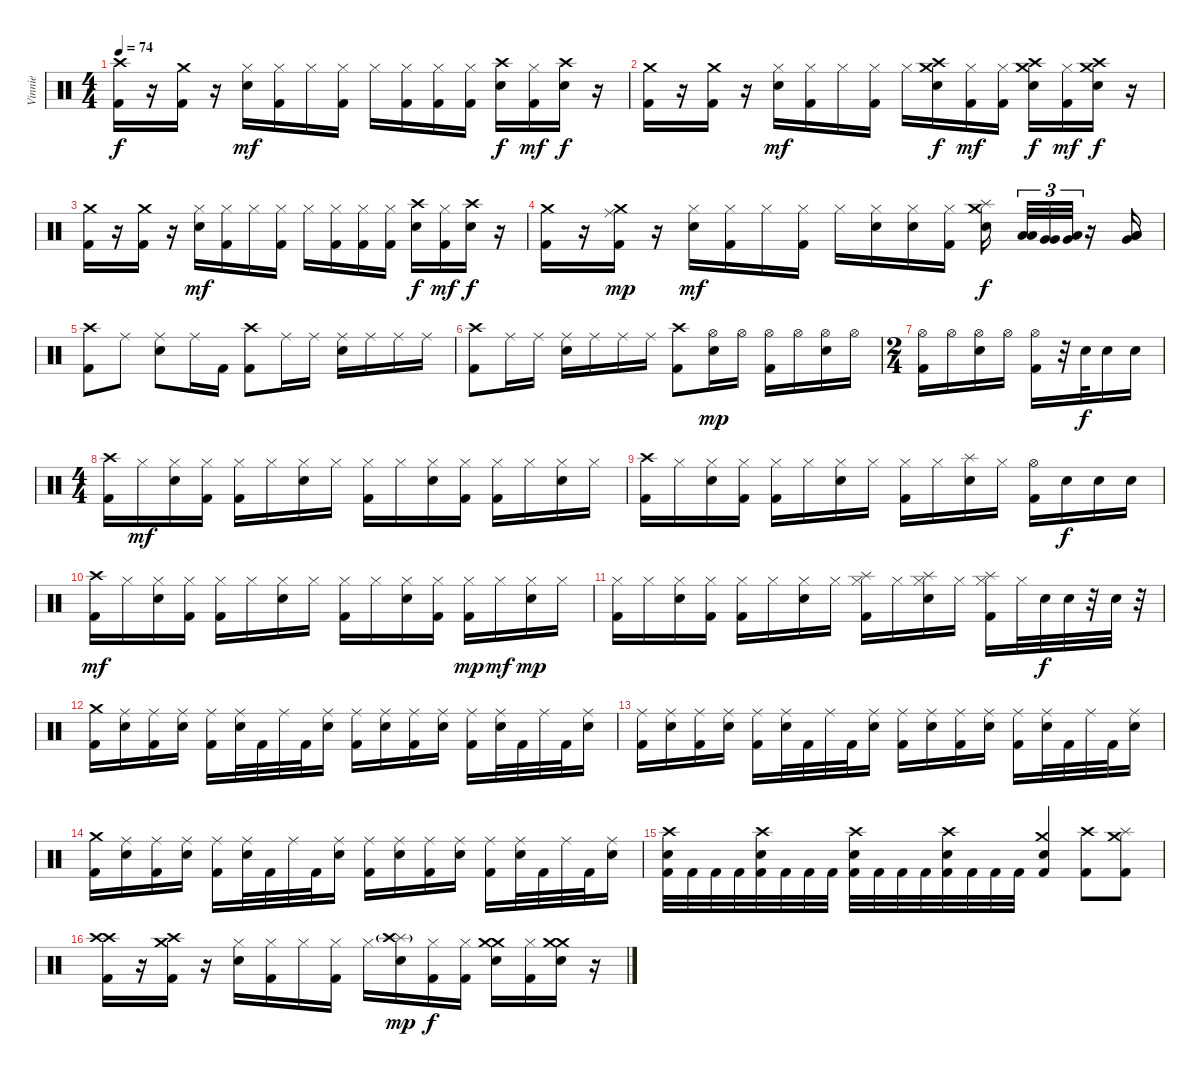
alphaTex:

\track ("Vinnie" "Vinnie") {instrument percussion}
\staff {score}
\articulation defaults
\ts (4 4)
\tempo 74
\clef neutral
\ks c
("Crash high (hit)" "Kick (hit) 2").16{dy f} r.16 ("Crash medium (hit)" "Kick (hit) 2").16 r.16 ("Hi-Hat (closed)" "Electric Snare (hit)").16{dy mf} ("Hi-Hat (closed)" "Kick (hit) 2").16 "Hi-Hat (closed)".16 ("Hi-Hat (closed)" "Kick (hit) 2").16 "Hi-Hat (closed)".16 ("Hi-Hat (closed)" "Kick (hit) 2").16 ("Hi-Hat (closed)" "Kick (hit) 2").16 ("Hi-Hat (closed)" "Kick (hit) 2").16 ("Crash high (hit)" "Electric Snare (hit)").16{dy f} ("Hi-Hat (closed)" "Kick (hit) 2").16{dy mf} ("Crash high (hit)" "Electric Snare (hit)").16{dy f} r.16 |
("Crash medium (hit)" "Kick (hit) 2").16 r.16 ("Crash medium (hit)" "Kick (hit) 2").16 r.16 ("Hi-Hat (closed)" "Electric Snare (hit)").16{dy mf} ("Hi-Hat (closed)" "Kick (hit) 2").16 "Hi-Hat (closed)".16 ("Hi-Hat (closed)" "Kick (hit) 2").16 "Hi-Hat (closed)".16 ("Crash medium (hit)" "Crash high (hit)" "Electric Snare (hit)").16{dy f} ("Hi-Hat (closed)" "Kick (hit) 2").16{dy mf} ("Hi-Hat (closed)" "Kick (hit) 2").16 ("Crash medium (hit)" "Crash high (hit)" "Electric Snare (hit)").16{dy f} ("Hi-Hat (closed)" "Kick (hit) 2").16{dy mf} ("Crash medium (hit)" "Crash high (hit)" "Electric Snare (hit)").16{dy f} r.16 |
("Crash medium (hit)" "Kick (hit) 2").16 r.16 ("Crash medium (hit)" "Kick (hit) 2").16 r.16 ("Hi-Hat (closed)" "Electric Snare (hit)").16{dy mf} ("Hi-Hat (closed)" "Kick (hit) 2").16 "Hi-Hat (closed)".16 ("Hi-Hat (closed)" "Kick (hit) 2").16 "Hi-Hat (closed)".16 ("Hi-Hat (closed)" "Kick (hit) 2").16 ("Hi-Hat (closed)" "Kick (hit) 2").16 ("Hi-Hat (closed)" "Kick (hit) 2").16 ("Crash high (hit)" "Electric Snare (hit)").16{dy f} ("Hi-Hat (closed)" "Kick (hit) 2").16{dy mf} ("Crash high (hit)" "Electric Snare (hit)").16{dy f} r.16 |
("Crash medium (hit)" "Kick (hit) 2").16 r.16 ("Crash medium (hit)" "Ride (middle)" "Kick (hit) 2").16{dy mp} r.16 ("Hi-Hat (closed)" "Electric Snare (hit)").16{dy mf} ("Hi-Hat (closed)" "Kick (hit) 2").16 "Hi-Hat (closed)".16 ("Hi-Hat (closed)" "Kick (hit) 2").16 "Hi-Hat (closed)".16 ("Hi-Hat (closed)" "Electric Snare (hit)").16 ("Hi-Hat (closed)" "Electric Snare (hit)").16 ("Hi-Hat (closed)" "Kick (hit) 2").16 ("Crash medium (hit)" "Splash (hit)" "Electric Snare (hit)").16{dy f} ("Low Tom (hit)" "Low Tom (hit)").32{tu (3 2)} ("Very Low Tom (hit)" "Very Low Tom (hit)").32{tu (3 2)} ("Very Low Tom (hit)" "Low Floor Tom (hit)").32{tu (3 2)} r.16 ("Very Low Tom (hit)" "Low Floor Tom (hit)" "Low Floor Tom (hit)").16 |
("Crash high (hit)" "Kick (hit) 2").8 "Ride (middle)".8 ("Ride (middle)" "Electric Snare (hit)").8 "Ride (middle)".16 "Kick (hit) 2".16 ("Crash high (hit)" "Kick (hit) 2").8 "Ride (middle)".16 "Ride (middle)".16 ("Ride (middle)" "Electric Snare (hit)").16 "Ride (middle)".16 "Ride (middle)".16 "Ride (middle)".16 |
("Crash high (hit)" "Kick (hit) 2").8 "Ride (middle)".16 "Ride (middle)".16 ("Ride (middle)" "Electric Snare (hit)").16 "Ride (middle)".16 "Ride (middle)".16 "Ride (middle)".16 ("Crash high (hit)" "Kick (hit) 2").8 ("Hi-Hat (open)" "Electric Snare (hit)").16{dy mp} "Hi-Hat (open)".16 ("Hi-Hat (open)" "Kick (hit) 2").16 "Hi-Hat (open)".16 ("Hi-Hat (open)" "Electric Snare (hit)").16 "Hi-Hat (open)".16 |
\ts (2 4)
("Hi-Hat (open)" "Kick (hit) 2").16 "Hi-Hat (open)".16 ("Hi-Hat (open)" "Electric Snare (hit)").16 "Hi-Hat (open)".16 ("Hi-Hat (open)" "Kick (hit) 2").16 r.32 "Electric Snare (hit)".32{dy f} "Electric Snare (hit)".16 "Electric Snare (hit)".16 |
\ts (4 4)
("Crash high (hit)" "Kick (hit) 2").16 "Hi-Hat (closed)".16{dy mf} ("Hi-Hat (closed)" "Electric Snare (hit)").16 ("Hi-Hat (closed)" "Kick (hit) 2").16 ("Hi-Hat (closed)" "Kick (hit) 2").16 "Hi-Hat (closed)".16 ("Hi-Hat (closed)" "Electric Snare (hit)").16 "Hi-Hat (closed)".16 ("Hi-Hat (closed)" "Kick (hit) 2").16 "Hi-Hat (closed)".16 ("Hi-Hat (closed)" "Electric Snare (hit)").16 ("Hi-Hat (closed)" "Kick (hit) 2").16 ("Hi-Hat (closed)" "Kick (hit) 2").16 "Hi-Hat (closed)".16 ("Hi-Hat (closed)" "Electric Snare (hit)").16 "Hi-Hat (closed)".16 |
("Crash high (hit)" "Kick (hit) 2").16 "Hi-Hat (closed)".16 ("Hi-Hat (closed)" "Electric Snare (hit)").16 ("Hi-Hat (closed)" "Kick (hit) 2").16 ("Hi-Hat (closed)" "Kick (hit) 2").16 "Hi-Hat (closed)".16 ("Hi-Hat (closed)" "Electric Snare (hit)").16 "Hi-Hat (closed)".16 ("Hi-Hat (closed)" "Kick (hit) 2").16 "Hi-Hat (closed)".16 ("Splash (hit)" "Electric Snare (hit)").16 "Hi-Hat (closed)".16 ("Hi-Hat (open)" "Kick (hit) 2").16 "Electric Snare (hit)".16{dy f} "Electric Snare (hit)".16 "Electric Snare (hit)".16 |
("Crash high (hit)" "Kick (hit) 2").16{dy mf} "Hi-Hat (closed)".16 ("Hi-Hat (closed)" "Electric Snare (hit)").16 ("Hi-Hat (closed)" "Kick (hit) 2").16 ("Hi-Hat (closed)" "Kick (hit) 2").16 "Hi-Hat (closed)".16 ("Hi-Hat (closed)" "Electric Snare (hit)").16 "Hi-Hat (closed)".16 ("Hi-Hat (closed)" "Kick (hit) 2").16 "Hi-Hat (closed)".16 ("Hi-Hat (closed)" "Electric Snare (hit)").16 ("Hi-Hat (closed)" "Kick (hit) 2").16 ("Hi-Hat (closed)" "Kick (hit) 2").16{dy mp} "Hi-Hat (closed)".16{dy mf} ("Hi-Hat (closed)" "Electric Snare (hit)").16{dy mp} "Hi-Hat (closed)".16 |
("Hi-Hat (closed)" "Kick (hit) 2").16 "Hi-Hat (closed)".16 ("Hi-Hat (closed)" "Electric Snare (hit)").16 ("Hi-Hat (closed)" "Kick (hit) 2").16 ("Hi-Hat (closed)" "Kick (hit) 2").16 "Hi-Hat (closed)".16 ("Hi-Hat (closed)" "Electric Snare (hit)").16 "Hi-Hat (closed)".16 ("Hi-Hat (closed)" "Splash (hit)" "Kick (hit) 2").16 "Hi-Hat (closed)".16 ("Hi-Hat (closed)" "Splash (hit)" "Electric Snare (hit)").16 "Hi-Hat (closed)".16 ("Hi-Hat (closed)" "Splash (hit)" "Kick (hit) 2").16 "Hi-Hat (closed)".32 "Electric Snare (hit)".32{dy f} "Electric Snare (hit)".32 r.32 "Electric Snare (hit)".32 r.32 |
("Crash medium (hit)" "Kick (hit) 2").16 ("Ride (middle)" "Electric Snare (hit)").16 ("Ride (middle)" "Kick (hit) 2").16 ("Ride (middle)" "Electric Snare (hit)").16 ("Ride (middle)" "Kick (hit) 2").16 ("Ride (middle)" "Electric Snare (hit)").32 "Kick (hit) 2".32 "Ride (middle)".32 "Kick (hit) 2".32 ("Ride (middle)" "Electric Snare (hit)").16 ("Ride (middle)" "Kick (hit) 2").16 ("Ride (middle)" "Electric Snare (hit)").16 ("Ride (middle)" "Kick (hit) 2").16 ("Ride (middle)" "Electric Snare (hit)").16 ("Ride (middle)" "Kick (hit) 2").16 ("Ride (middle)" "Electric Snare (hit)").32 "Kick (hit) 2".32 "Ride (middle)".32 "Kick (hit) 2".32 ("Ride (middle)" "Electric Snare (hit)").16 |
("Ride (middle)" "Kick (hit) 2").16 ("Ride (middle)" "Electric Snare (hit)").16 ("Ride (middle)" "Kick (hit) 2").16 ("Ride (middle)" "Electric Snare (hit)").16 ("Ride (middle)" "Kick (hit) 2").16 ("Ride (middle)" "Electric Snare (hit)").32 "Kick (hit) 2".32 "Ride (middle)".32 "Kick (hit) 2".32 ("Ride (middle)" "Electric Snare (hit)").16 ("Ride (middle)" "Kick (hit) 2").16 ("Ride (middle)" "Electric Snare (hit)").16 ("Ride (middle)" "Kick (hit) 2").16 ("Ride (middle)" "Electric Snare (hit)").16 ("Ride (middle)" "Kick (hit) 2").16 ("Ride (middle)" "Electric Snare (hit)").32 "Kick (hit) 2".32 "Ride (middle)".32 "Kick (hit) 2".32 ("Ride (middle)" "Electric Snare (hit)").16 |
("Crash medium (hit)" "Kick (hit) 2").16 ("Ride (middle)" "Electric Snare (hit)").16 ("Ride (middle)" "Kick (hit) 2").16 ("Ride (middle)" "Electric Snare (hit)").16 ("Ride (middle)" "Kick (hit) 2").16 ("Ride (middle)" "Electric Snare (hit)").32 "Kick (hit) 2".32 "Ride (middle)".32 "Kick (hit) 2".32 ("Ride (middle)" "Electric Snare (hit)").16 ("Ride (middle)" "Kick (hit) 2").16 ("Ride (middle)" "Electric Snare (hit)").16 ("Ride (middle)" "Kick (hit) 2").16 ("Ride (middle)" "Electric Snare (hit)").16 ("Ride (middle)" "Kick (hit) 2").16 ("Ride (middle)" "Electric Snare (hit)").32 "Kick (hit) 2".32 "Ride (middle)".32 "Kick (hit) 2".32 ("Ride (middle)" "Electric Snare (hit)").16 |
("Crash high (hit)" "Electric Snare (hit)" "Kick (hit) 2").32 "Kick (hit) 2".32 "Kick (hit) 2".32 "Kick (hit) 2".32 ("Crash high (hit)" "Electric Snare (hit)" "Kick (hit) 2").32 "Kick (hit) 2".32 "Kick (hit) 2".32 "Kick (hit) 2".32 ("Crash high (hit)" "Electric Snare (hit)" "Kick (hit) 2").32 "Kick (hit) 2".32 "Kick (hit) 2".32 "Kick (hit) 2".32 ("Crash high (hit)" "Electric Snare (hit)" "Kick (hit) 2").32 "Kick (hit) 2".32 "Kick (hit) 2".32 "Kick (hit) 2".32 ("Crash medium (hit)" "Electric Snare (hit)" "Kick (hit) 2").4 ("Crash high (hit)" "Kick (hit) 2").8 ("Crash medium (hit)" "Splash (hit)" "Kick (hit) 2").8 |
("Crash high (hit)" "Crash high (hit)" "Kick (hit) 2").16{volume 16} r.16 ("Crash medium (hit)" "Crash high (hit)" "Kick (hit) 2").16 r.16 ("Hi-Hat (closed)" "Electric Snare (hit)").16 ("Hi-Hat (closed)" "Kick (hit) 2").16 "Hi-Hat (closed)".16 ("Hi-Hat (closed)" "Kick (hit) 2").16 "Hi-Hat (closed)".16 ("Splash (hit)" "Crash high (hit)"{g} "Electric Snare (hit)").16{dy mp} ("Hi-Hat (closed)" "Kick (hit) 2").16{dy f} ("Hi-Hat (closed)" "Kick (hit) 2").16 ("Crash medium (hit)" "Crash medium (hit)" "Electric Snare (hit)").16 ("Hi-Hat (closed)" "Kick (hit) 2").16 ("Crash medium (hit)" "Crash medium (hit)" "Electric Snare (hit)").16 r.16
